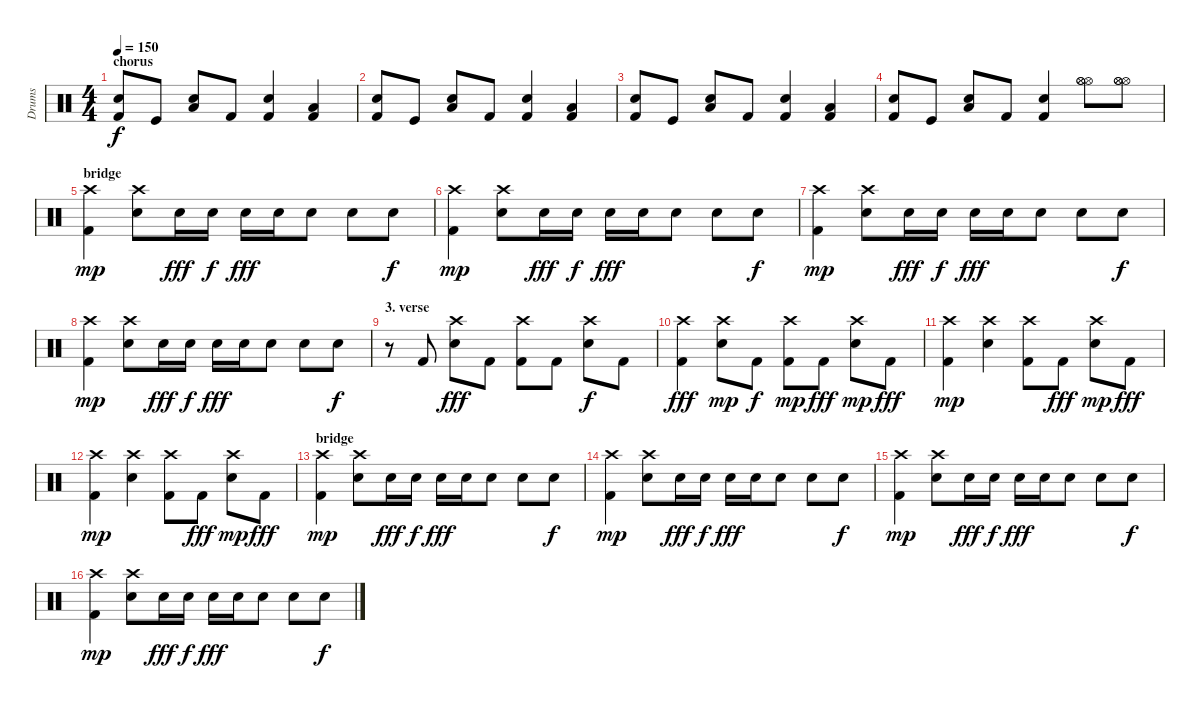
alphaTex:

\track ("Drums" "Drums") {instrument percussion}
\staff {score}
\articulation defaults
\ts (4 4)
\section ("" "chorus")
\tempo 150
\clef neutral
\ks c
("Kick (hit) 2" "Snare (hit) 2").8{dy f} "Kick (hit)".8 ("Low Tom (hit)" "Snare (hit) 2").8 "Kick (hit) 2".8 ("Kick (hit) 2" "Snare (hit) 2").4 ("Low Tom (hit)" "Kick (hit) 2").4 |
("Kick (hit) 2" "Snare (hit) 2").8 "Kick (hit)".8 ("Low Tom (hit)" "Snare (hit) 2").8 "Kick (hit) 2".8 ("Kick (hit) 2" "Snare (hit) 2").4 ("Low Tom (hit)" "Kick (hit) 2").4 |
("Kick (hit) 2" "Snare (hit) 2").8 "Kick (hit)".8 ("Low Tom (hit)" "Snare (hit) 2").8 "Kick (hit) 2".8 ("Kick (hit) 2" "Snare (hit) 2").4 ("Low Tom (hit)" "Kick (hit) 2").4 |
("Kick (hit) 2" "Snare (hit) 2").8 "Kick (hit)".8 ("Low Tom (hit)" "Snare (hit) 2").8 "Kick (hit) 2".8 ("Kick (hit) 2" "Snare (hit) 2").4 ("Hi-Hat (open)" "Hi-Hat (open)" "Hi-Hat (open)").8 ("Hi-Hat (open)" "Hi-Hat (open)" "Hi-Hat (open)").8 |
\section ("" "bridge")
("Kick (hit) 2" "Crash high (hit)").4{dy mp} ("Electric Snare (hit)" "Crash high (hit)").8 "Electric Snare (hit)".16{dy fff} "Electric Snare (hit)".16{dy f} "Electric Snare (hit)".16{dy fff} "Electric Snare (hit)".16 "Electric Snare (hit)".8 "Electric Snare (hit)".8 "Electric Snare (hit)".8{dy f} |
("Kick (hit) 2" "Crash high (hit)").4{dy mp} ("Electric Snare (hit)" "Crash high (hit)").8 "Electric Snare (hit)".16{dy fff} "Electric Snare (hit)".16{dy f} "Electric Snare (hit)".16{dy fff} "Electric Snare (hit)".16 "Electric Snare (hit)".8 "Electric Snare (hit)".8 "Electric Snare (hit)".8{dy f} |
("Kick (hit) 2" "Crash high (hit)").4{dy mp} ("Electric Snare (hit)" "Crash high (hit)").8 "Electric Snare (hit)".16{dy fff} "Electric Snare (hit)".16{dy f} "Electric Snare (hit)".16{dy fff} "Electric Snare (hit)".16 "Electric Snare (hit)".8 "Electric Snare (hit)".8 "Electric Snare (hit)".8{dy f} |
("Kick (hit) 2" "Crash high (hit)").4{dy mp} ("Electric Snare (hit)" "Crash high (hit)").8 "Electric Snare (hit)".16{dy fff} "Electric Snare (hit)".16{dy f} "Electric Snare (hit)".16{dy fff} "Electric Snare (hit)".16 "Electric Snare (hit)".8 "Electric Snare (hit)".8 "Electric Snare (hit)".8{dy f} |
\section ("" "3. verse")
r.8 "Kick (hit) 2".8 ("Electric Snare (hit)" "Crash high (hit)").8{dy fff} "Kick (hit) 2".8 ("Kick (hit) 2" "Crash high (hit)").8 "Kick (hit) 2".8 ("Electric Snare (hit)" "Crash high (hit)").8{dy f} "Kick (hit) 2".8 |
("Kick (hit) 2" "Crash high (hit)").4{dy fff} ("Electric Snare (hit)" "Crash high (hit)").8{dy mp} "Kick (hit) 2".8{dy f} ("Kick (hit) 2" "Crash high (hit)").8{dy mp} "Kick (hit) 2".8{dy fff} ("Electric Snare (hit)" "Crash high (hit)").8{dy mp} "Kick (hit) 2".8{dy fff} |
("Kick (hit) 2" "Crash high (hit)").4{dy mp} ("Electric Snare (hit)" "Crash high (hit)").4 ("Kick (hit) 2" "Crash high (hit)").8 "Kick (hit) 2".8{dy fff} ("Electric Snare (hit)" "Crash high (hit)").8{dy mp} "Kick (hit) 2".8{dy fff} |
("Kick (hit) 2" "Crash high (hit)").4{dy mp} ("Electric Snare (hit)" "Crash high (hit)").4 ("Kick (hit) 2" "Crash high (hit)").8 "Kick (hit) 2".8{dy fff} ("Electric Snare (hit)" "Crash high (hit)").8{dy mp} "Kick (hit) 2".8{dy fff} |
\section ("" "bridge")
("Kick (hit) 2" "Crash high (hit)").4{dy mp} ("Electric Snare (hit)" "Crash high (hit)").8 "Electric Snare (hit)".16{dy fff} "Electric Snare (hit)".16{dy f} "Electric Snare (hit)".16{dy fff} "Electric Snare (hit)".16 "Electric Snare (hit)".8 "Electric Snare (hit)".8 "Electric Snare (hit)".8{dy f} |
("Kick (hit) 2" "Crash high (hit)").4{dy mp} ("Electric Snare (hit)" "Crash high (hit)").8 "Electric Snare (hit)".16{dy fff} "Electric Snare (hit)".16{dy f} "Electric Snare (hit)".16{dy fff} "Electric Snare (hit)".16 "Electric Snare (hit)".8 "Electric Snare (hit)".8 "Electric Snare (hit)".8{dy f} |
("Kick (hit) 2" "Crash high (hit)").4{dy mp} ("Electric Snare (hit)" "Crash high (hit)").8 "Electric Snare (hit)".16{dy fff} "Electric Snare (hit)".16{dy f} "Electric Snare (hit)".16{dy fff} "Electric Snare (hit)".16 "Electric Snare (hit)".8 "Electric Snare (hit)".8 "Electric Snare (hit)".8{dy f} |
("Kick (hit) 2" "Crash high (hit)").4{dy mp} ("Electric Snare (hit)" "Crash high (hit)").8 "Electric Snare (hit)".16{dy fff} "Electric Snare (hit)".16{dy f} "Electric Snare (hit)".16{dy fff} "Electric Snare (hit)".16 "Electric Snare (hit)".8 "Electric Snare (hit)".8 "Electric Snare (hit)".8{dy f}
